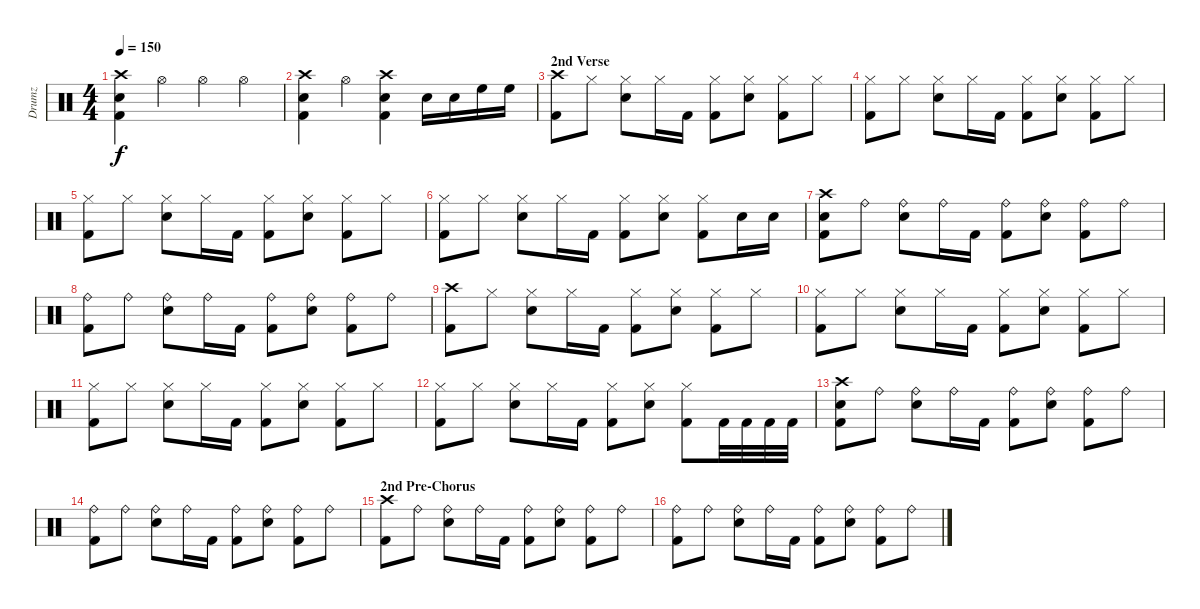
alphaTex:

\track ("Drumz" "Drumz") {instrument percussion}
\staff {score}
\articulation defaults
\ts (4 4)
\tempo 150
\clef neutral
\ks c
("Crash high (hit)" "Snare (hit) 2" "Kick (hit) 2").4{dy f} "Hi-Hat (open)".4 "Hi-Hat (open)".4 "Hi-Hat (open)".4 |
("Crash high (hit)" "Snare (hit) 2" "Kick (hit) 2").4 "Hi-Hat (open)".4 ("Crash high (hit)" "Snare (hit) 2" "Kick (hit) 2").4 "Snare (hit) 2".16 "Snare (hit) 2".16 "High Floor Tom (hit)".16 "High Floor Tom (hit)".16 |
\section ("" "2nd Verse")
("Crash high (hit)" "Kick (hit) 2").8 "Hi-Hat (closed)".8 ("Hi-Hat (closed)" "Snare (hit) 2").8 "Hi-Hat (closed)".16 "Kick (hit) 2".16 ("Hi-Hat (closed)" "Kick (hit) 2").8 ("Hi-Hat (closed)" "Snare (hit) 2").8 ("Hi-Hat (closed)" "Kick (hit) 2").8 "Hi-Hat (closed)".8 |
("Hi-Hat (closed)" "Kick (hit) 2").8 "Hi-Hat (closed)".8 ("Hi-Hat (closed)" "Snare (hit) 2").8 "Hi-Hat (closed)".16 "Kick (hit) 2".16 ("Hi-Hat (closed)" "Kick (hit) 2").8 ("Hi-Hat (closed)" "Snare (hit) 2").8 ("Hi-Hat (closed)" "Kick (hit) 2").8 "Hi-Hat (closed)".8 |
("Hi-Hat (closed)" "Kick (hit) 2").8 "Hi-Hat (closed)".8 ("Hi-Hat (closed)" "Snare (hit) 2").8 "Hi-Hat (closed)".16 "Kick (hit) 2".16 ("Hi-Hat (closed)" "Kick (hit) 2").8 ("Hi-Hat (closed)" "Snare (hit) 2").8 ("Hi-Hat (closed)" "Kick (hit) 2").8 "Hi-Hat (closed)".8 |
("Hi-Hat (closed)" "Kick (hit) 2").8 "Hi-Hat (closed)".8 ("Hi-Hat (closed)" "Snare (hit) 2").8 "Hi-Hat (closed)".16 "Kick (hit) 2".16 ("Hi-Hat (closed)" "Kick (hit) 2").8 ("Hi-Hat (closed)" "Snare (hit) 2").8 ("Hi-Hat (closed)" "Kick (hit) 2").8 "Snare (hit) 2".16 "Snare (hit) 2".16 |
("Crash high (hit)" "Snare (hit) 2" "Kick (hit) 2").8 "Ride (bell)".8 ("Ride (bell)" "Snare (hit) 2").8 "Ride (bell)".16 "Kick (hit) 2".16 ("Ride (bell)" "Kick (hit) 2").8 ("Ride (bell)" "Snare (hit) 2").8 ("Ride (bell)" "Kick (hit) 2").8 "Ride (bell)".8 |
("Ride (bell)" "Kick (hit) 2").8 "Ride (bell)".8 ("Ride (bell)" "Snare (hit) 2").8 "Ride (bell)".16 "Kick (hit) 2".16 ("Ride (bell)" "Kick (hit) 2").8 ("Ride (bell)" "Snare (hit) 2").8 ("Ride (bell)" "Kick (hit) 2").8 "Ride (bell)".8 |
("Crash high (hit)" "Kick (hit) 2").8 "Hi-Hat (closed)".8 ("Hi-Hat (closed)" "Snare (hit) 2").8 "Hi-Hat (closed)".16 "Kick (hit) 2".16 ("Hi-Hat (closed)" "Kick (hit) 2").8 ("Hi-Hat (closed)" "Snare (hit) 2").8 ("Hi-Hat (closed)" "Kick (hit) 2").8 "Hi-Hat (closed)".8 |
("Hi-Hat (closed)" "Kick (hit) 2").8 "Hi-Hat (closed)".8 ("Hi-Hat (closed)" "Snare (hit) 2").8 "Hi-Hat (closed)".16 "Kick (hit) 2".16 ("Hi-Hat (closed)" "Kick (hit) 2").8 ("Hi-Hat (closed)" "Snare (hit) 2").8 ("Hi-Hat (closed)" "Kick (hit) 2").8 "Hi-Hat (closed)".8 |
("Hi-Hat (closed)" "Kick (hit) 2").8 "Hi-Hat (closed)".8 ("Hi-Hat (closed)" "Snare (hit) 2").8 "Hi-Hat (closed)".16 "Kick (hit) 2".16 ("Hi-Hat (closed)" "Kick (hit) 2").8 ("Hi-Hat (closed)" "Snare (hit) 2").8 ("Hi-Hat (closed)" "Kick (hit) 2").8 "Hi-Hat (closed)".8 |
("Hi-Hat (closed)" "Kick (hit) 2").8 "Hi-Hat (closed)".8 ("Hi-Hat (closed)" "Snare (hit) 2").8 "Hi-Hat (closed)".16 "Kick (hit) 2".16 ("Hi-Hat (closed)" "Kick (hit) 2").8 ("Hi-Hat (closed)" "Snare (hit) 2").8 ("Hi-Hat (closed)" "Kick (hit) 2").8 "Kick (hit) 2".32 "Kick (hit) 2".32 "Kick (hit) 2".32 "Kick (hit) 2".32 |
("Crash high (hit)" "Snare (hit) 2" "Kick (hit) 2").8 "Ride (bell)".8 ("Ride (bell)" "Snare (hit) 2").8 "Ride (bell)".16 "Kick (hit) 2".16 ("Ride (bell)" "Kick (hit) 2").8 ("Ride (bell)" "Snare (hit) 2").8 ("Ride (bell)" "Kick (hit) 2").8 "Ride (bell)".8 |
("Ride (bell)" "Kick (hit) 2").8 "Ride (bell)".8 ("Ride (bell)" "Snare (hit) 2").8 "Ride (bell)".16 "Kick (hit) 2".16 ("Ride (bell)" "Kick (hit) 2").8 ("Ride (bell)" "Snare (hit) 2").8 ("Ride (bell)" "Kick (hit) 2").8 "Ride (bell)".8 |
\section ("" "2nd Pre-Chorus")
("Crash high (hit)" "Kick (hit) 2").8 "Ride (bell)".8 ("Ride (bell)" "Snare (hit) 2").8 "Ride (bell)".16 "Kick (hit) 2".16 ("Ride (bell)" "Kick (hit) 2").8 ("Ride (bell)" "Snare (hit) 2").8 ("Ride (bell)" "Kick (hit) 2").8 "Ride (bell)".8 |
("Ride (bell)" "Kick (hit) 2").8 "Ride (bell)".8 ("Ride (bell)" "Snare (hit) 2").8 "Ride (bell)".16 "Kick (hit) 2".16 ("Ride (bell)" "Kick (hit) 2").8 ("Ride (bell)" "Snare (hit) 2").8 ("Ride (bell)" "Kick (hit) 2").8 "Ride (bell)".8
